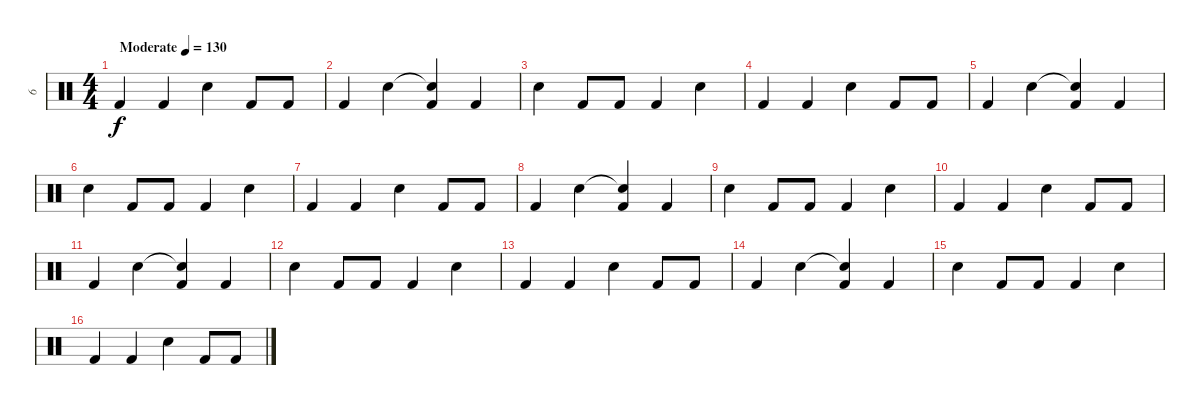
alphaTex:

\track ("6" "6") {instrument percussion}
\staff {score}
\articulation defaults
\ts (4 4)
\tempo (130 "Moderate")
\clef neutral
\ks c "Kick (hit) 2".4{dy f} "Kick (hit) 2".4 "Electric Snare (hit)".4 "Kick (hit) 2".8 "Kick (hit) 2".8
|
"Kick (hit) 2".4 "Electric Snare (hit)".4 ("Electric Snare (hit)"{t} "Kick (hit) 2").4 "Kick (hit) 2".4 |
"Electric Snare (hit)".4 "Kick (hit) 2".8 "Kick (hit) 2".8 "Kick (hit) 2".4 "Electric Snare (hit)".4 |
"Kick (hit) 2".4 "Kick (hit) 2".4 "Electric Snare (hit)".4 "Kick (hit) 2".8 "Kick (hit) 2".8 |
"Kick (hit) 2".4 "Electric Snare (hit)".4 ("Electric Snare (hit)"{t} "Kick (hit) 2").4 "Kick (hit) 2".4 |
"Electric Snare (hit)".4 "Kick (hit) 2".8 "Kick (hit) 2".8 "Kick (hit) 2".4 "Electric Snare (hit)".4 |
"Kick (hit) 2".4 "Kick (hit) 2".4 "Electric Snare (hit)".4 "Kick (hit) 2".8 "Kick (hit) 2".8 |
"Kick (hit) 2".4 "Electric Snare (hit)".4 ("Electric Snare (hit)"{t} "Kick (hit) 2").4 "Kick (hit) 2".4 |
"Electric Snare (hit)".4 "Kick (hit) 2".8 "Kick (hit) 2".8 "Kick (hit) 2".4 "Electric Snare (hit)".4 |
"Kick (hit) 2".4 "Kick (hit) 2".4 "Electric Snare (hit)".4 "Kick (hit) 2".8 "Kick (hit) 2".8 |
"Kick (hit) 2".4 "Electric Snare (hit)".4 ("Electric Snare (hit)"{t} "Kick (hit) 2").4 "Kick (hit) 2".4 |
"Electric Snare (hit)".4 "Kick (hit) 2".8 "Kick (hit) 2".8 "Kick (hit) 2".4 "Electric Snare (hit)".4 |
"Kick (hit) 2".4 "Kick (hit) 2".4 "Electric Snare (hit)".4 "Kick (hit) 2".8 "Kick (hit) 2".8 |
"Kick (hit) 2".4 "Electric Snare (hit)".4 ("Electric Snare (hit)"{t} "Kick (hit) 2").4 "Kick (hit) 2".4 |
"Electric Snare (hit)".4 "Kick (hit) 2".8 "Kick (hit) 2".8 "Kick (hit) 2".4 "Electric Snare (hit)".4 |
"Kick (hit) 2".4 "Kick (hit) 2".4 "Electric Snare (hit)".4 "Kick (hit) 2".8 "Kick (hit) 2".8
